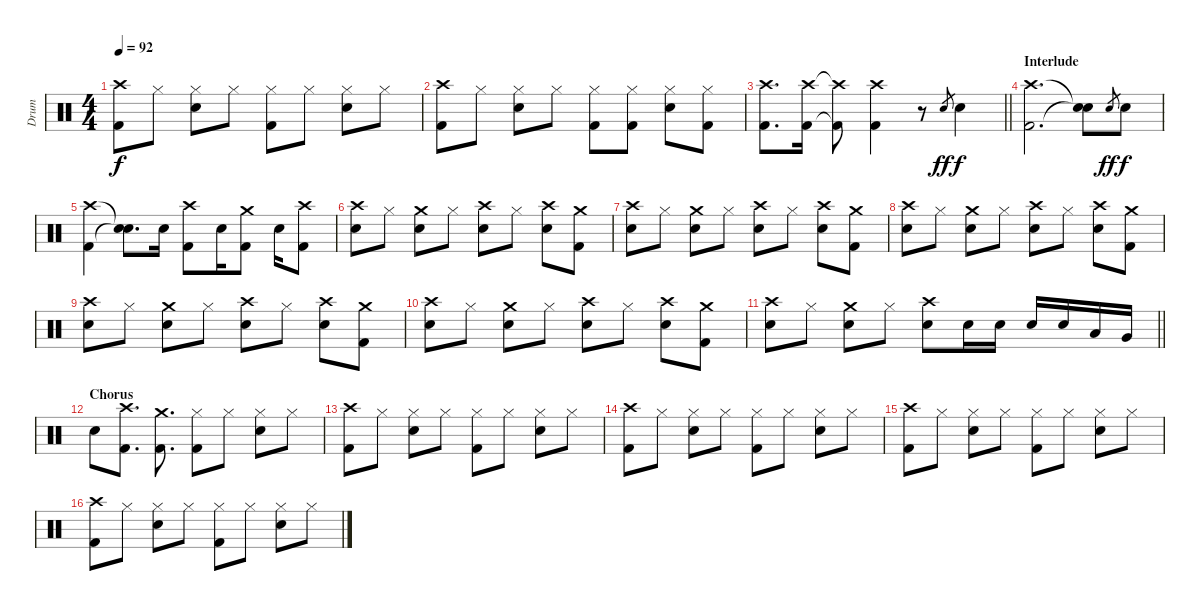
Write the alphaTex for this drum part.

\track ("Drum" "Drum") {instrument percussion}
\staff {score}
\articulation defaults
\ts (4 4)
\tempo 92
\clef neutral
\ks c
("Crash high (hit)" "Kick (hit) 2").8{dy f} "Hi-Hat (closed)".8 ("Hi-Hat (closed)" "Snare (hit) 2").8 "Hi-Hat (closed)".8 ("Hi-Hat (closed)" "Kick (hit) 2").8 "Hi-Hat (closed)".8 ("Hi-Hat (closed)" "Snare (hit) 2").8 "Hi-Hat (closed)".8 |
("Crash high (hit)" "Kick (hit) 2").8 "Hi-Hat (closed)".8 ("Hi-Hat (closed)" "Snare (hit) 2").8 "Hi-Hat (closed)".8 ("Hi-Hat (closed)" "Kick (hit) 2").8 ("Hi-Hat (closed)" "Kick (hit) 2").8 ("Hi-Hat (closed)" "Snare (hit) 2").8 ("Hi-Hat (closed)" "Kick (hit) 2").8 |
\barLineRight lightlight
("Crash high (hit)" "Kick (hit) 2").8{d} ("Crash high (hit)" "Kick (hit) 2").16 ("Crash high (hit)"{t} "Kick (hit) 2"{t}).8 ("Crash high (hit)" "Kick (hit) 2").4 r.8 "Snare (hit) 2".8{gr dy ff} "Snare (hit) 2".4{dy f} |
\section ("" "Interlude")
("Crash high (hit)" "Kick (hit) 2").2{d} ("Snare (hit)"{t} "Snare (hit)"{t}).8 "Snare (hit) 2".8{gr dy ff} "Snare (hit) 2".8{dy f} |
("Crash high (hit)" "Kick (hit) 2").4 ("Snare (hit)"{t} "Snare (hit)"{t}).8{d} "Snare (hit) 2".16 ("Crash high (hit)" "Kick (hit) 2").8 "Snare (hit) 2".16 ("Crash medium (hit)" "Kick (hit) 2").8 "Snare (hit) 2".16 ("Crash high (hit)" "Kick (hit) 2").8 |
("Crash high (hit)" "Snare (hit) 2").8 "Hi-Hat (closed)".8 ("Crash medium (hit)" "Snare (hit) 2").8 "Hi-Hat (closed)".8 ("Crash high (hit)" "Snare (hit) 2").8 "Hi-Hat (closed)".8 ("Crash high (hit)" "Snare (hit) 2").8 ("Crash medium (hit)" "Kick (hit) 2").8 |
("Crash high (hit)" "Snare (hit) 2").8 "Hi-Hat (closed)".8 ("Crash medium (hit)" "Snare (hit) 2").8 "Hi-Hat (closed)".8 ("Crash high (hit)" "Snare (hit) 2").8 "Hi-Hat (closed)".8 ("Crash high (hit)" "Snare (hit) 2").8 ("Crash medium (hit)" "Kick (hit) 2").8 |
("Crash high (hit)" "Snare (hit) 2").8 "Hi-Hat (closed)".8 ("Crash medium (hit)" "Snare (hit) 2").8 "Hi-Hat (closed)".8 ("Crash high (hit)" "Snare (hit) 2").8 "Hi-Hat (closed)".8 ("Crash high (hit)" "Snare (hit) 2").8 ("Crash medium (hit)" "Kick (hit) 2").8 |
("Crash high (hit)" "Snare (hit) 2").8 "Hi-Hat (closed)".8 ("Crash medium (hit)" "Snare (hit) 2").8 "Hi-Hat (closed)".8 ("Crash high (hit)" "Snare (hit) 2").8 "Hi-Hat (closed)".8 ("Crash high (hit)" "Snare (hit) 2").8 ("Crash medium (hit)" "Kick (hit) 2").8 |
("Crash high (hit)" "Snare (hit) 2").8 "Hi-Hat (closed)".8 ("Crash medium (hit)" "Snare (hit) 2").8 "Hi-Hat (closed)".8 ("Crash high (hit)" "Snare (hit) 2").8 "Hi-Hat (closed)".8 ("Crash high (hit)" "Snare (hit) 2").8 ("Crash medium (hit)" "Kick (hit) 2").8 |
\barLineRight lightlight
("Crash high (hit)" "Snare (hit) 2").8 "Hi-Hat (closed)".8 ("Crash medium (hit)" "Snare (hit) 2").8 "Hi-Hat (closed)".8 ("Crash high (hit)" "Snare (hit) 2").8 "Snare (hit) 2".16 "Snare (hit) 2".16 "Snare (hit) 2".16 "Snare (hit) 2".16 "Low Tom (hit)".16 "Very Low Tom (hit)".16 |
\section ("" "Chorus")
"Snare (hit) 2".8 ("Crash high (hit)" "Kick (hit) 2").8{d} ("Crash medium (hit)" "Kick (hit) 2").8{d} ("Hi-Hat (closed)" "Kick (hit) 2").8 "Hi-Hat (closed)".8 ("Hi-Hat (closed)" "Snare (hit) 2").8 "Hi-Hat (closed)".8 |
("Crash high (hit)" "Kick (hit) 2").8 "Hi-Hat (closed)".8 ("Hi-Hat (closed)" "Snare (hit) 2").8 "Hi-Hat (closed)".8 ("Hi-Hat (closed)" "Kick (hit) 2").8 "Hi-Hat (closed)".8 ("Hi-Hat (closed)" "Snare (hit) 2").8 "Hi-Hat (closed)".8 |
("Crash high (hit)" "Kick (hit) 2").8 "Hi-Hat (closed)".8 ("Hi-Hat (closed)" "Snare (hit) 2").8 "Hi-Hat (closed)".8 ("Hi-Hat (closed)" "Kick (hit) 2").8 "Hi-Hat (closed)".8 ("Hi-Hat (closed)" "Snare (hit) 2").8 "Hi-Hat (closed)".8 |
("Crash high (hit)" "Kick (hit) 2").8 "Hi-Hat (closed)".8 ("Hi-Hat (closed)" "Snare (hit) 2").8 "Hi-Hat (closed)".8 ("Hi-Hat (closed)" "Kick (hit) 2").8 "Hi-Hat (closed)".8 ("Hi-Hat (closed)" "Snare (hit) 2").8 "Hi-Hat (closed)".8 |
("Crash high (hit)" "Kick (hit) 2").8 "Hi-Hat (closed)".8 ("Hi-Hat (closed)" "Snare (hit) 2").8 "Hi-Hat (closed)".8 ("Hi-Hat (closed)" "Kick (hit) 2").8 "Hi-Hat (closed)".8 ("Hi-Hat (closed)" "Snare (hit) 2").8 "Hi-Hat (closed)".8
